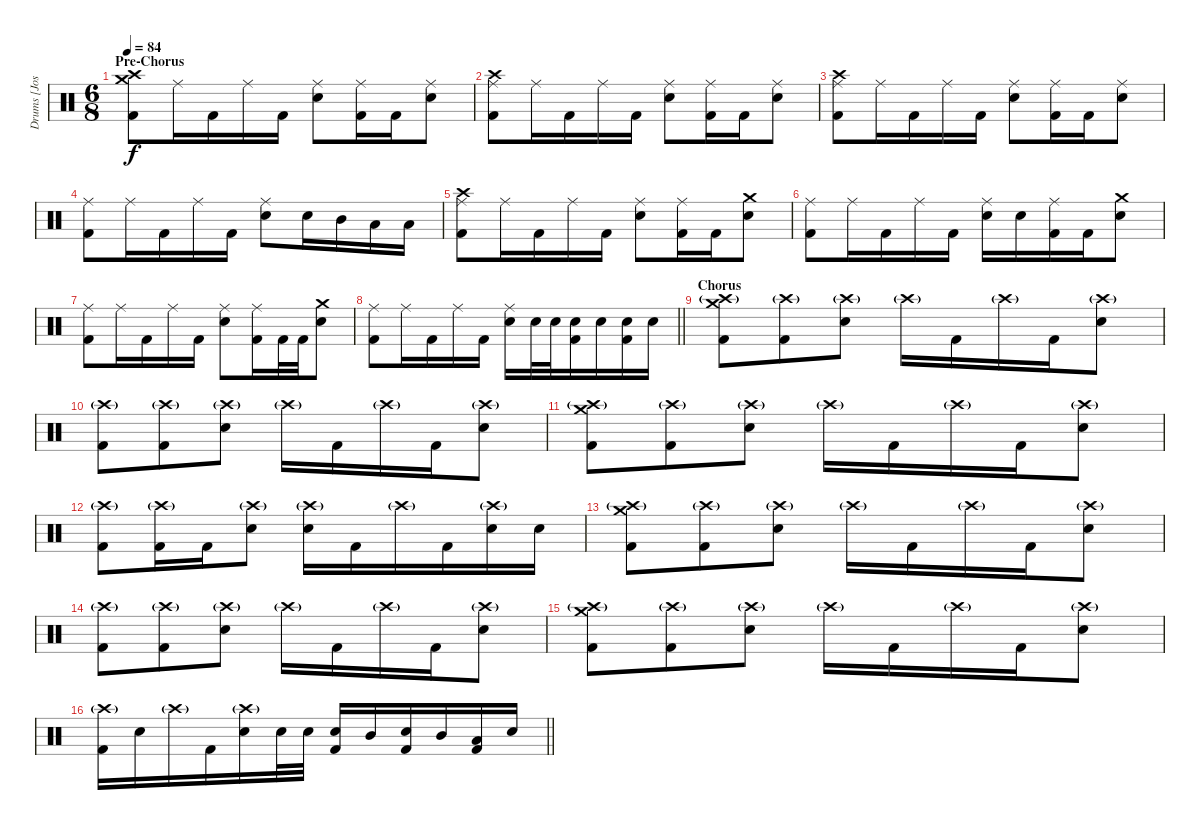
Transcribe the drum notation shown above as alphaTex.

\track ("Drums [Josh Freese]" "Drums [Jos") {instrument percussion}
\staff {score}
\articulation defaults
\ts (6 8)
\section ("" "Pre-Chorus")
\tempo 84
\clef neutral
\ks c
("Crash medium (hit)" "Crash high (hit)" "Kick (hit) 2").8{dy f} "Ride (middle)".16 "Kick (hit) 2".16 "Ride (middle)".16 "Kick (hit) 2".16 ("Ride (middle)" "Electric Snare (hit)").8 ("Ride (middle)" "Kick (hit) 2").16 "Kick (hit) 2".16 ("Ride (middle)" "Electric Snare (hit)").8 |
("Crash high (hit)" "Ride (middle)" "Kick (hit) 2").8 "Ride (middle)".16 "Kick (hit) 2".16 "Ride (middle)".16 "Kick (hit) 2".16 ("Ride (middle)" "Electric Snare (hit)").8 ("Ride (middle)" "Kick (hit) 2").16 "Kick (hit) 2".16 ("Ride (middle)" "Electric Snare (hit)").8 |
("Crash high (hit)" "Ride (middle)" "Kick (hit) 2").8 "Ride (middle)".16 "Kick (hit) 2".16 "Ride (middle)".16 "Kick (hit) 2".16 ("Ride (middle)" "Electric Snare (hit)").8 ("Ride (middle)" "Kick (hit) 2").16 "Kick (hit) 2".16 ("Ride (middle)" "Electric Snare (hit)").8 |
("Ride (middle)" "Kick (hit) 2").8 "Ride (middle)".16 "Kick (hit) 2".16 "Ride (middle)".16 "Kick (hit) 2".16 ("Ride (middle)" "Electric Snare (hit)").8 "Electric Snare (hit)".16 "Mid Tom (hit)".16 "Low Tom (hit)".16 "Low Tom (hit)".16 |
("Crash high (hit)" "Ride (middle)" "Kick (hit) 2").8 "Ride (middle)".16 "Kick (hit) 2".16 "Ride (middle)".16 "Kick (hit) 2".16 ("Ride (middle)" "Electric Snare (hit)").8 ("Ride (middle)" "Kick (hit) 2").16 "Kick (hit) 2".16 ("Crash medium (hit)" "Electric Snare (hit)").8 |
("Ride (middle)" "Kick (hit) 2").8 "Ride (middle)".16 "Kick (hit) 2".16 "Ride (middle)".16 "Kick (hit) 2".16 ("Ride (middle)" "Electric Snare (hit)").16 "Electric Snare (hit)".16 ("Ride (middle)" "Kick (hit) 2").16 "Kick (hit) 2".16 ("Crash medium (hit)" "Electric Snare (hit)").8 |
("Ride (middle)" "Kick (hit) 2").8 "Ride (middle)".16 "Kick (hit) 2".16 "Ride (middle)".16 "Kick (hit) 2".16 ("Ride (middle)" "Electric Snare (hit)").8 ("Ride (middle)" "Kick (hit) 2").16 "Kick (hit) 2".32 "Kick (hit) 2".32 ("Crash medium (hit)" "Electric Snare (hit)").8 |
\barLineRight lightlight
("Ride (middle)" "Kick (hit) 2").8 "Ride (middle)".16 "Kick (hit) 2".16 "Ride (middle)".16 "Kick (hit) 2".16 ("Ride (middle)" "Electric Snare (hit)").16 "Electric Snare (hit)".32 "Electric Snare (hit)".32 ("Electric Snare (hit)" "Kick (hit) 2").16 "Electric Snare (hit)".16 ("Electric Snare (hit)" "Kick (hit) 2").16 "Electric Snare (hit)".16 |
\section ("" "Chorus")
("Crash medium (hit)" "Crash high (hit)"{g} "Kick (hit) 2").8 ("Crash high (hit)"{g} "Kick (hit) 2").8 ("Crash high (hit)"{g} "Electric Snare (hit)").8 "Crash high (hit)"{g}.16 "Kick (hit) 2".16 "Crash high (hit)"{g}.16 "Kick (hit) 2".16 ("Crash high (hit)"{g} "Electric Snare (hit)").8 |
("Crash high (hit)"{g} "Kick (hit) 2").8 ("Crash high (hit)"{g} "Kick (hit) 2").8 ("Crash high (hit)"{g} "Electric Snare (hit)").8 "Crash high (hit)"{g}.16 "Kick (hit) 2".16 "Crash high (hit)"{g}.16 "Kick (hit) 2".16 ("Crash high (hit)"{g} "Electric Snare (hit)").8 |
("Crash medium (hit)" "Crash high (hit)"{g} "Kick (hit) 2").8 ("Crash high (hit)"{g} "Kick (hit) 2").8 ("Crash high (hit)"{g} "Electric Snare (hit)").8 "Crash high (hit)"{g}.16 "Kick (hit) 2".16 "Crash high (hit)"{g}.16 "Kick (hit) 2".16 ("Crash high (hit)"{g} "Electric Snare (hit)").8 |
("Crash high (hit)"{g} "Kick (hit) 2").8 ("Crash high (hit)"{g} "Kick (hit) 2").16 "Kick (hit) 2".16 ("Crash high (hit)"{g} "Electric Snare (hit)").8 ("Crash high (hit)"{g} "Electric Snare (hit)").16 "Kick (hit) 2".16 "Crash high (hit)"{g}.16 "Kick (hit) 2".16 ("Crash high (hit)"{g} "Electric Snare (hit)").16 "Electric Snare (hit)".16 |
("Crash medium (hit)" "Crash high (hit)"{g} "Kick (hit) 2").8 ("Crash high (hit)"{g} "Kick (hit) 2").8 ("Crash high (hit)"{g} "Electric Snare (hit)").8 "Crash high (hit)"{g}.16 "Kick (hit) 2".16 "Crash high (hit)"{g}.16 "Kick (hit) 2".16 ("Crash high (hit)"{g} "Electric Snare (hit)").8 |
("Crash high (hit)"{g} "Kick (hit) 2").8 ("Crash high (hit)"{g} "Kick (hit) 2").8 ("Crash high (hit)"{g} "Electric Snare (hit)").8 "Crash high (hit)"{g}.16 "Kick (hit) 2".16 "Crash high (hit)"{g}.16 "Kick (hit) 2".16 ("Crash high (hit)"{g} "Electric Snare (hit)").8 |
("Crash medium (hit)" "Crash high (hit)"{g} "Kick (hit) 2").8 ("Crash high (hit)"{g} "Kick (hit) 2").8 ("Crash high (hit)"{g} "Electric Snare (hit)").8 "Crash high (hit)"{g}.16 "Kick (hit) 2".16 "Crash high (hit)"{g}.16 "Kick (hit) 2".16 ("Crash high (hit)"{g} "Electric Snare (hit)").8 |
\barLineRight lightlight
("Crash high (hit)"{g} "Kick (hit) 2").16 "Electric Snare (hit)".16 "Crash high (hit)"{g}.16 "Kick (hit) 2".16 ("Crash high (hit)"{g} "Electric Snare (hit)").16 "Electric Snare (hit)".32 "Electric Snare (hit)".32 ("Electric Snare (hit)" "Kick (hit) 2").16 "Mid Tom (hit)".16 ("Electric Snare (hit)" "Kick (hit) 2").16 "Mid Tom (hit)".16 ("Low Tom (hit)" "Kick (hit) 2").16 "Electric Snare (hit)".16
